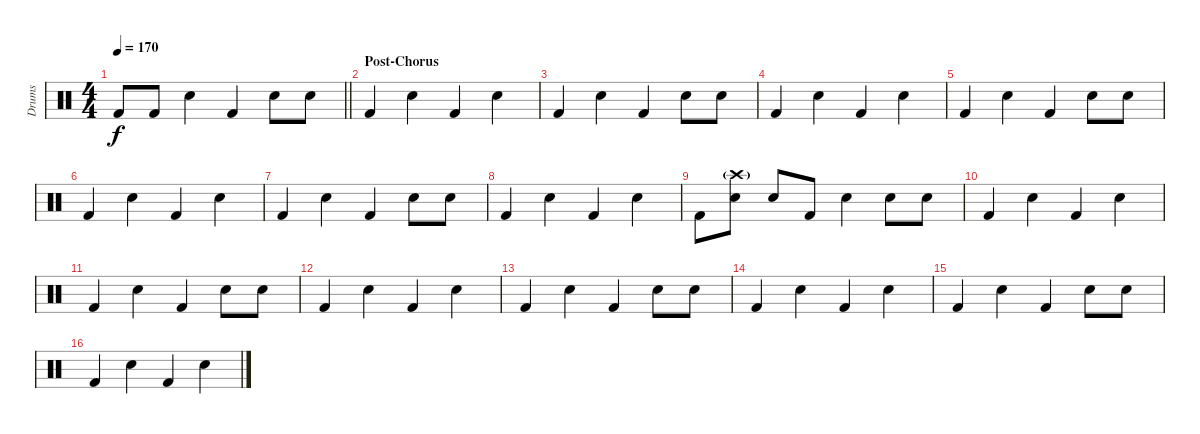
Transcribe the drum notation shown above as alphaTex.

\track ("Drums" "Drums") {instrument percussion}
\staff {score}
\articulation defaults
\ts (4 4)
\tempo 170
\clef neutral
\barLineRight lightlight
\ks c "Kick (hit) 2".8{dy f} "Kick (hit) 2".8 "Hand Clap (hit)".4 "Kick (hit) 2".4 "Hand Clap (hit)".8 "Hand Clap (hit)".8
|
\section ("" "Post-Chorus")
"Kick (hit) 2".4 "Hand Clap (hit)".4 "Kick (hit) 2".4 "Hand Clap (hit)".4 |
"Kick (hit) 2".4 "Hand Clap (hit)".4 "Kick (hit) 2".4 "Hand Clap (hit)".8 "Hand Clap (hit)".8 |
"Kick (hit) 2".4 "Hand Clap (hit)".4 "Kick (hit) 2".4 "Hand Clap (hit)".4 |
"Kick (hit) 2".4 "Hand Clap (hit)".4 "Kick (hit) 2".4 "Hand Clap (hit)".8 "Hand Clap (hit)".8 |
"Kick (hit) 2".4 "Hand Clap (hit)".4 "Kick (hit) 2".4 "Hand Clap (hit)".4 |
"Kick (hit) 2".4 "Hand Clap (hit)".4 "Kick (hit) 2".4 "Hand Clap (hit)".8 "Hand Clap (hit)".8 |
"Kick (hit) 2".4 "Hand Clap (hit)".4 "Kick (hit) 2".4 "Hand Clap (hit)".4 |
"Kick (hit) 2".8 ("Crash high (hit)"{g} "Snare (hit) 2").8 "Snare (hit) 2".8 "Kick (hit) 2".8 "Snare (hit) 2".4 "Snare (hit) 2".8 "Snare (hit) 2".8 |
"Kick (hit) 2".4 "Hand Clap (hit)".4 "Kick (hit) 2".4 "Hand Clap (hit)".4 |
"Kick (hit) 2".4 "Hand Clap (hit)".4 "Kick (hit) 2".4 "Hand Clap (hit)".8 "Hand Clap (hit)".8 |
"Kick (hit) 2".4 "Hand Clap (hit)".4 "Kick (hit) 2".4 "Hand Clap (hit)".4 |
"Kick (hit) 2".4 "Hand Clap (hit)".4 "Kick (hit) 2".4 "Hand Clap (hit)".8 "Hand Clap (hit)".8 |
"Kick (hit) 2".4 "Hand Clap (hit)".4 "Kick (hit) 2".4 "Hand Clap (hit)".4 |
"Kick (hit) 2".4 "Hand Clap (hit)".4 "Kick (hit) 2".4 "Hand Clap (hit)".8 "Hand Clap (hit)".8 |
"Kick (hit) 2".4 "Hand Clap (hit)".4 "Kick (hit) 2".4 "Hand Clap (hit)".4
